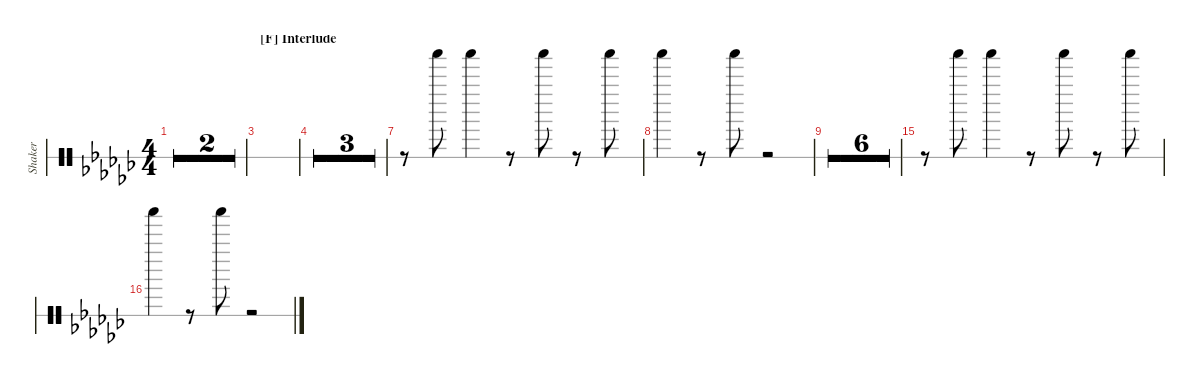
\defaultSystemsLayout 4
\hideDynamics
\bracketExtendMode groupsimilarinstruments
\otherSystemsTrackNameOrientation horizontal
\track ("Shaker" "Shaker") {multiBarRest instrument percussion}
\staff {score 1}
\articulation defaults
\ts (4 4)
\tempo 139
\clef neutral
\ks gb
|
|
\section ("F" "Interlude")
|
|
|
|
r.8 "Shaker (hit)"{acc forcenatural}.8 "Shaker (hit)"{acc forcenatural}.4 r.8 "Shaker (hit)"{acc forcenatural}.8 r.8 "Shaker (hit)"{acc forcenatural}.8 |
"Shaker (hit)"{acc forcenatural}.4 r.8 "Shaker (hit)"{acc forcenatural}.8 r.2 |
\simile firstofdouble
|
\simile secondofdouble
|
\simile none
r.1 |
r.1 |
r.1 |
r.1 |
r.8 "Shaker (hit)"{acc forcenatural}.8 "Shaker (hit)"{acc forcenatural}.4 r.8 "Shaker (hit)"{acc forcenatural}.8 r.8 "Shaker (hit)"{acc forcenatural}.8 |
"Shaker (hit)"{acc forcenatural}.4 r.8 "Shaker (hit)"{acc forcenatural}.8 r.2
